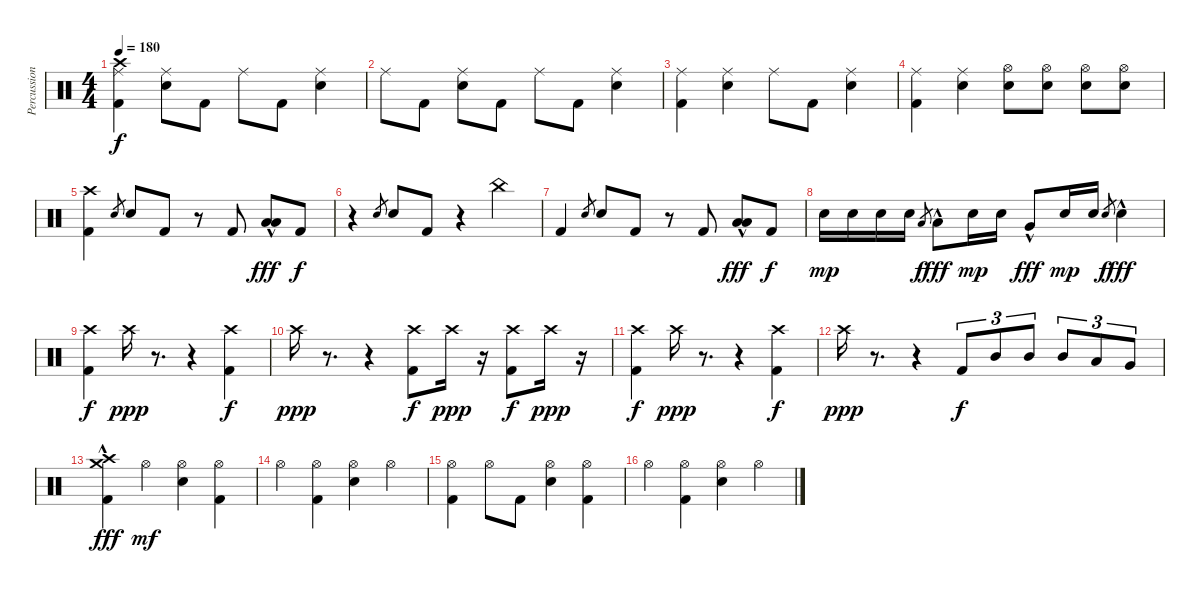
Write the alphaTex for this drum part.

\track ("Percussion" "Percussion") {instrument percussion}
\staff {score}
\articulation defaults
\ts (4 4)
\tempo 180
\clef neutral
\ks c
("Ride (middle)" "Crash high (hit)" "Kick (hit) 2").4{dy f} ("Ride (middle)" "Electric Snare (hit)").8 "Kick (hit) 2".8 "Ride (middle)".8 "Kick (hit) 2".8 ("Ride (middle)" "Electric Snare (hit)").4 |
"Ride (middle)".8 "Kick (hit) 2".8 ("Ride (middle)" "Electric Snare (hit)").8 "Kick (hit) 2".8 "Ride (middle)".8 "Kick (hit) 2".8 ("Ride (middle)" "Electric Snare (hit)").4 |
("Ride (middle)" "Kick (hit) 2").4 ("Ride (middle)" "Electric Snare (hit)").4 "Ride (middle)".8 "Kick (hit) 2".8 ("Ride (middle)" "Electric Snare (hit)").4 |
("Ride (middle)" "Kick (hit) 2").4 ("Ride (middle)" "Electric Snare (hit)").4 ("Hi-Hat (open)" "Electric Snare (hit)").8 ("Hi-Hat (open)" "Electric Snare (hit)").8 ("Hi-Hat (open)" "Electric Snare (hit)").8 ("Hi-Hat (open)" "Electric Snare (hit)").8 |
("Crash high (hit)" "Kick (hit) 2").4 "Electric Snare (hit)".8{gr} "Electric Snare (hit)".8 "Kick (hit) 2".8 r.8 "Kick (hit) 2".8 ("Low Tom (hit)" "Low Floor Tom (hit)"{hac}).8{dy fff} "Kick (hit) 2".8{dy f} |
r.4 "Electric Snare (hit)".8{gr} "Electric Snare (hit)".8 "Kick (hit) 2".8 r.4 "China (hit)".4 |
"Kick (hit) 2".4 "Electric Snare (hit)".8{gr} "Electric Snare (hit)".8 "Kick (hit) 2".8 r.8 "Kick (hit) 2".8 ("Low Tom (hit)" "Low Floor Tom (hit)"{hac}).8{dy fff} "Kick (hit) 2".8{dy f} |
"Electric Snare (hit)".16{dy mp} "Electric Snare (hit)".16 "Electric Snare (hit)".16 "Electric Snare (hit)".16 "Low Tom (hit)".8{gr dy f} "Low Tom (hit)"{hac}.8{dy fff} "Electric Snare (hit)".16{dy mp} "Electric Snare (hit)".16 "Very Low Tom (hit)"{hac}.8{dy fff} "Electric Snare (hit)".16{dy mp} "Electric Snare (hit)".16 "Electric Snare (hit)".8{gr dy f} "Electric Snare (hit)"{hac}.4{dy fff} |
("Crash high (hit)" "Kick (hit) 2").4{dy f} "Crash high (hit)".16{dy ppp} r.8{d} r.4 ("Crash high (hit)" "Kick (hit) 2").4{dy f} |
"Crash high (hit)".16{dy ppp} r.8{d} r.4 ("Crash high (hit)" "Kick (hit) 2").8{dy f} "Crash high (hit)".16{dy ppp} r.16 ("Crash high (hit)" "Kick (hit) 2").8{dy f} "Crash high (hit)".16{dy ppp} r.16 |
("Crash high (hit)" "Kick (hit) 2").4{dy f} "Crash high (hit)".16{dy ppp} r.8{d} r.4 ("Crash high (hit)" "Kick (hit) 2").4{dy f} |
"Crash high (hit)".16{dy ppp} r.8{d} r.4 "Kick (hit) 2".8{tu (3 2) dy f volume 15} "Mid Tom (hit)".8{tu (3 2)} "Mid Tom (hit)".8{tu (3 2)} "Mid Tom (hit)".8{tu (3 2)} "Low Tom (hit)".8{tu (3 2)} "Very Low Tom (hit)".8{tu (3 2)} |
("Crash high (hit)"{hac} "Crash medium (hit)"{hac} "Kick (hit) 2"{hac}).4{dy fff} "Hi-Hat (open)".4{dy mf} ("Hi-Hat (open)" "Electric Snare (hit)").4 ("Hi-Hat (open)" "Kick (hit) 2").4 |
"Hi-Hat (open)".4 ("Hi-Hat (open)" "Kick (hit) 2").4 ("Hi-Hat (open)" "Electric Snare (hit)").4 "Hi-Hat (open)".4 |
("Hi-Hat (open)" "Kick (hit) 2").4 "Hi-Hat (open)".8 "Kick (hit) 2".8 ("Hi-Hat (open)" "Electric Snare (hit)").4 ("Hi-Hat (open)" "Kick (hit) 2").4 |
"Hi-Hat (open)".4 ("Hi-Hat (open)" "Kick (hit) 2").4 ("Hi-Hat (open)" "Electric Snare (hit)").4 "Hi-Hat (open)".4
